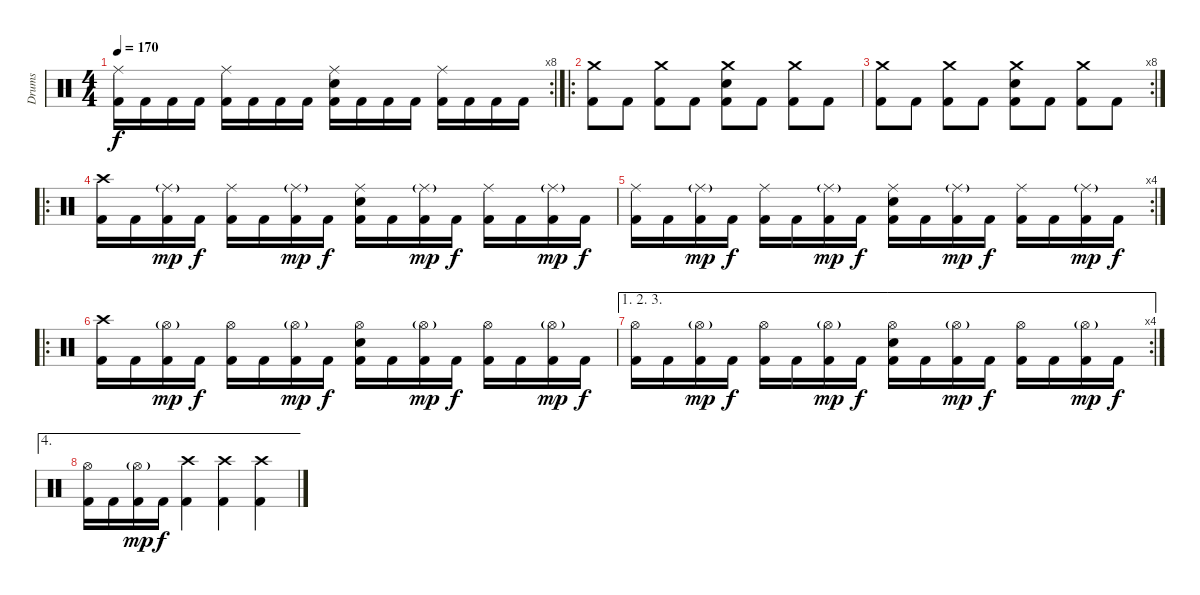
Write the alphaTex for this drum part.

\track ("Drums" "Drums") {instrument percussion}
\staff {score}
\articulation defaults
\rc 8
\ts (4 4)
\tempo 170
\clef neutral
\ks c
("Ride (middle)" "Kick (hit) 2").16{dy f} "Kick (hit) 2".16 "Kick (hit) 2".16 "Kick (hit) 2".16 ("Ride (middle)" "Kick (hit) 2").16 "Kick (hit) 2".16 "Kick (hit) 2".16 "Kick (hit) 2".16 ("Ride (middle)" "Electric Snare (hit)" "Kick (hit) 2").16 "Kick (hit) 2".16 "Kick (hit) 2".16 "Kick (hit) 2".16 ("Ride (middle)" "Kick (hit) 2").16 "Kick (hit) 2".16 "Kick (hit) 2".16 "Kick (hit) 2".16 |
\ro
("Crash medium (hit)" "Kick (hit) 2").8 "Kick (hit) 2".8 ("Crash medium (hit)" "Kick (hit) 2").8 "Kick (hit) 2".8 ("Crash medium (hit)" "Electric Snare (hit)" "Kick (hit) 2").8 "Kick (hit) 2".8 ("Crash medium (hit)" "Kick (hit) 2").8 "Kick (hit) 2".8 |
\rc 8
("Crash medium (hit)" "Kick (hit) 2").8 "Kick (hit) 2".8 ("Crash medium (hit)" "Kick (hit) 2").8 "Kick (hit) 2".8 ("Crash medium (hit)" "Electric Snare (hit)" "Kick (hit) 2").8 "Kick (hit) 2".8 ("Crash medium (hit)" "Kick (hit) 2").8 "Kick (hit) 2".8 |
\ro
("Crash high (hit)" "Kick (hit) 2").16 "Kick (hit) 2".16 ("Ride (middle)"{g} "Kick (hit) 2").16{dy mp} "Kick (hit) 2".16{dy f} ("Ride (middle)" "Kick (hit) 2").16 "Kick (hit) 2".16 ("Ride (middle)"{g} "Kick (hit) 2").16{dy mp} "Kick (hit) 2".16{dy f} ("Ride (middle)" "Electric Snare (hit)" "Kick (hit) 2").16 "Kick (hit) 2".16 ("Ride (middle)"{g} "Kick (hit) 2").16{dy mp} "Kick (hit) 2".16{dy f} ("Ride (middle)" "Kick (hit) 2").16 "Kick (hit) 2".16 ("Ride (middle)"{g} "Kick (hit) 2").16{dy mp} "Kick (hit) 2".16{dy f} |
\rc 4
("Ride (middle)" "Kick (hit) 2").16 "Kick (hit) 2".16 ("Ride (middle)"{g} "Kick (hit) 2").16{dy mp} "Kick (hit) 2".16{dy f} ("Ride (middle)" "Kick (hit) 2").16 "Kick (hit) 2".16 ("Ride (middle)"{g} "Kick (hit) 2").16{dy mp} "Kick (hit) 2".16{dy f} ("Ride (middle)" "Electric Snare (hit)" "Kick (hit) 2").16 "Kick (hit) 2".16 ("Ride (middle)"{g} "Kick (hit) 2").16{dy mp} "Kick (hit) 2".16{dy f} ("Ride (middle)" "Kick (hit) 2").16 "Kick (hit) 2".16 ("Ride (middle)"{g} "Kick (hit) 2").16{dy mp} "Kick (hit) 2".16{dy f} |
\ro
("Crash high (hit)" "Kick (hit) 2").16 "Kick (hit) 2".16 ("Hi-Hat (open)"{g} "Kick (hit) 2").16{dy mp} "Kick (hit) 2".16{dy f} ("Hi-Hat (open)" "Kick (hit) 2").16 "Kick (hit) 2".16 ("Hi-Hat (open)"{g} "Kick (hit) 2").16{dy mp} "Kick (hit) 2".16{dy f} ("Hi-Hat (open)" "Electric Snare (hit)" "Kick (hit) 2").16 "Kick (hit) 2".16 ("Hi-Hat (open)"{g} "Kick (hit) 2").16{dy mp} "Kick (hit) 2".16{dy f} ("Hi-Hat (open)" "Kick (hit) 2").16 "Kick (hit) 2".16 ("Hi-Hat (open)"{g} "Kick (hit) 2").16{dy mp} "Kick (hit) 2".16{dy f} |
\ae (1 2 3)
\rc 4
("Hi-Hat (open)" "Kick (hit) 2").16 "Kick (hit) 2".16 ("Hi-Hat (open)"{g} "Kick (hit) 2").16{dy mp} "Kick (hit) 2".16{dy f} ("Hi-Hat (open)" "Kick (hit) 2").16 "Kick (hit) 2".16 ("Hi-Hat (open)"{g} "Kick (hit) 2").16{dy mp} "Kick (hit) 2".16{dy f} ("Hi-Hat (open)" "Electric Snare (hit)" "Kick (hit) 2").16 "Kick (hit) 2".16 ("Hi-Hat (open)"{g} "Kick (hit) 2").16{dy mp} "Kick (hit) 2".16{dy f} ("Hi-Hat (open)" "Kick (hit) 2").16 "Kick (hit) 2".16 ("Hi-Hat (open)"{g} "Kick (hit) 2").16{dy mp} "Kick (hit) 2".16{dy f} |
\ae 4
("Hi-Hat (open)" "Kick (hit) 2").16 "Kick (hit) 2".16 ("Hi-Hat (open)"{g} "Kick (hit) 2").16{dy mp} "Kick (hit) 2".16{dy f} ("Crash high (hit)" "Kick (hit) 2").4 ("Crash high (hit)" "Kick (hit) 2").4 ("Crash high (hit)" "Kick (hit) 2").4
